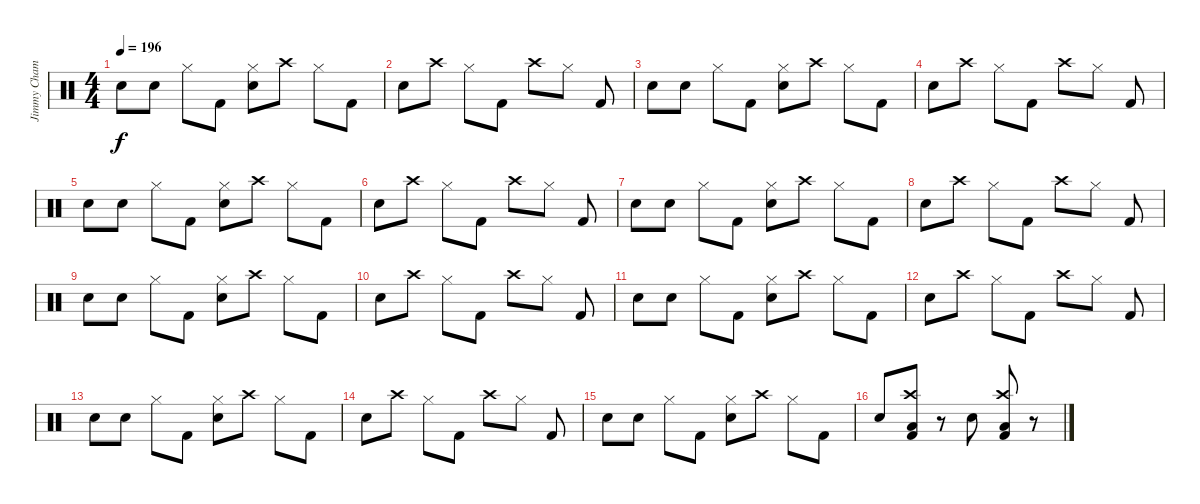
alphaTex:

\track ("Jimmy Chamberlin" "Jimmy Cham") {instrument percussion}
\staff {score}
\articulation defaults
\ts (4 4)
\tempo 196
\clef neutral
\ks c "Electric Snare (hit)".8{dy f} "Electric Snare (hit)".8 "Hi-Hat (closed)".8 "Kick (hit) 2".8
("Hi-Hat (closed)" "Electric Snare (hit)").8 "Crash high (hit)".8 "Hi-Hat (closed)".8 "Kick (hit) 2".8 |
"Electric Snare (hit)".8 "Crash high (hit)".8 "Hi-Hat (closed)".8 "Kick (hit) 2".8 "Crash high (hit)".8 "Hi-Hat (closed)".8 "Kick (hit) 2".8 |
"Electric Snare (hit)".8 "Electric Snare (hit)".8 "Hi-Hat (closed)".8 "Kick (hit) 2".8 ("Hi-Hat (closed)" "Electric Snare (hit)").8 "Crash high (hit)".8 "Hi-Hat (closed)".8 "Kick (hit) 2".8 |
"Electric Snare (hit)".8 "Crash high (hit)".8 "Hi-Hat (closed)".8 "Kick (hit) 2".8 "Crash high (hit)".8 "Hi-Hat (closed)".8 "Kick (hit) 2".8 |
"Electric Snare (hit)".8 "Electric Snare (hit)".8 "Hi-Hat (closed)".8 "Kick (hit) 2".8 ("Hi-Hat (closed)" "Electric Snare (hit)").8 "Crash high (hit)".8 "Hi-Hat (closed)".8 "Kick (hit) 2".8 |
"Electric Snare (hit)".8 "Crash high (hit)".8 "Hi-Hat (closed)".8 "Kick (hit) 2".8 "Crash high (hit)".8 "Hi-Hat (closed)".8 "Kick (hit) 2".8 |
"Electric Snare (hit)".8 "Electric Snare (hit)".8 "Hi-Hat (closed)".8 "Kick (hit) 2".8 ("Hi-Hat (closed)" "Electric Snare (hit)").8 "Crash high (hit)".8 "Hi-Hat (closed)".8 "Kick (hit) 2".8 |
"Electric Snare (hit)".8 "Crash high (hit)".8 "Hi-Hat (closed)".8 "Kick (hit) 2".8 "Crash high (hit)".8 "Hi-Hat (closed)".8 "Kick (hit) 2".8 |
"Electric Snare (hit)".8 "Electric Snare (hit)".8 "Hi-Hat (closed)".8 "Kick (hit) 2".8 ("Hi-Hat (closed)" "Electric Snare (hit)").8 "Crash high (hit)".8 "Hi-Hat (closed)".8 "Kick (hit) 2".8 |
"Electric Snare (hit)".8 "Crash high (hit)".8 "Hi-Hat (closed)".8 "Kick (hit) 2".8 "Crash high (hit)".8 "Hi-Hat (closed)".8 "Kick (hit) 2".8 |
"Electric Snare (hit)".8 "Electric Snare (hit)".8 "Hi-Hat (closed)".8 "Kick (hit) 2".8 ("Hi-Hat (closed)" "Electric Snare (hit)").8 "Crash high (hit)".8 "Hi-Hat (closed)".8 "Kick (hit) 2".8 |
"Electric Snare (hit)".8 "Crash high (hit)".8 "Hi-Hat (closed)".8 "Kick (hit) 2".8 "Crash high (hit)".8 "Hi-Hat (closed)".8 "Kick (hit) 2".8 |
"Electric Snare (hit)".8 "Electric Snare (hit)".8 "Hi-Hat (closed)".8 "Kick (hit) 2".8 ("Hi-Hat (closed)" "Electric Snare (hit)").8 "Crash high (hit)".8 "Hi-Hat (closed)".8 "Kick (hit) 2".8 |
"Electric Snare (hit)".8 "Crash high (hit)".8 "Hi-Hat (closed)".8 "Kick (hit) 2".8 "Crash high (hit)".8 "Hi-Hat (closed)".8 "Kick (hit) 2".8 |
"Electric Snare (hit)".8 "Electric Snare (hit)".8 "Hi-Hat (closed)".8 "Kick (hit) 2".8 ("Hi-Hat (closed)" "Electric Snare (hit)").8 "Crash high (hit)".8 "Hi-Hat (closed)".8 "Kick (hit) 2".8 |
"Electric Snare (hit)".8 ("Crash high (hit)" "Low Floor Tom (hit)" "Kick (hit) 2").8 r.8 "Electric Snare (hit)".8 ("Crash high (hit)" "Low Floor Tom (hit)" "Kick (hit) 2").8 r.8
